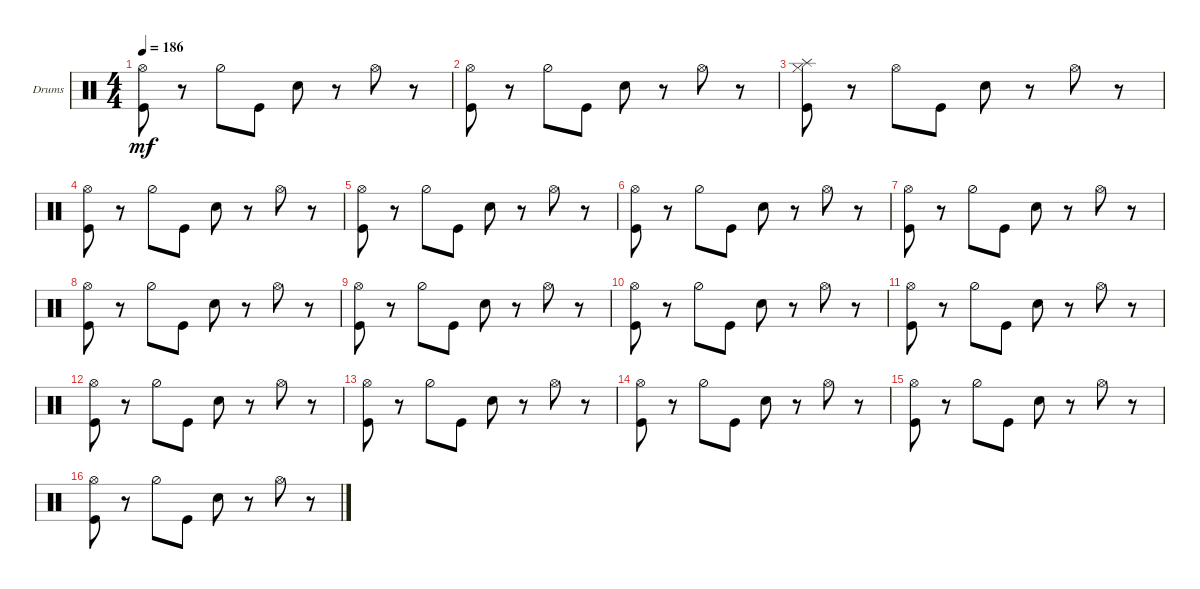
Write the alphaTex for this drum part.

\defaultSystemsLayout 4
\bracketExtendMode groupsimilarinstruments
\firstSystemTrackNameOrientation horizontal
\otherSystemsTrackNameOrientation horizontal
\track ("Drumkit" "Drums") {instrument percussion}
\staff {score}
\articulation defaults
\ts (4 4)
\tempo 186
\clef neutral
\scale
0.333333
\ks c
("Hi-Hat (open)" "Kick (hit)").8{dy mf} r.8 "Hi-Hat (half)".8 "Kick (hit)".8 "Snare (hit) 2".8 r.8 "Hi-Hat (open)".8 r.8 |
\scale
0.333333 ("Hi-Hat (open)" "Kick (hit)").8 r.8 "Hi-Hat (half)".8 "Kick (hit)".8 "Snare (hit) 2".8 r.8 "Hi-Hat (open)".8 r.8 |
\scale
0.333333 ("Hi-Hat (closed)" "Kick (hit)" "Splash (hit)").8 r.8 "Hi-Hat (open)".8 "Kick (hit)".8 "Snare (hit) 2".8 r.8 "Hi-Hat (open)".8 r.8 |
\scale
0.333333 ("Hi-Hat (open)" "Kick (hit)").8 r.8 "Hi-Hat (half)".8 "Kick (hit)".8 "Snare (hit) 2".8 r.8 "Hi-Hat (open)".8 r.8 |
\scale
0.333333 ("Hi-Hat (open)" "Kick (hit)").8 r.8 "Hi-Hat (half)".8 "Kick (hit)".8 "Snare (hit) 2".8 r.8 "Hi-Hat (open)".8 r.8 |
\scale
0.333333 ("Hi-Hat (open)" "Kick (hit)").8 r.8 "Hi-Hat (half)".8 "Kick (hit)".8 "Snare (hit) 2".8 r.8 "Hi-Hat (open)".8 r.8 |
\scale
0.333333 ("Hi-Hat (open)" "Kick (hit)").8 r.8 "Hi-Hat (half)".8 "Kick (hit)".8 "Snare (hit) 2".8 r.8 "Hi-Hat (open)".8 r.8 |
\scale
0.333333 ("Hi-Hat (open)" "Kick (hit)").8 r.8 "Hi-Hat (half)".8 "Kick (hit)".8 "Snare (hit) 2".8 r.8 "Hi-Hat (open)".8 r.8 |
\scale
0.333333 ("Hi-Hat (open)" "Kick (hit)").8 r.8 "Hi-Hat (half)".8 "Kick (hit)".8 "Snare (hit) 2".8 r.8 "Hi-Hat (open)".8 r.8 |
\scale
0.333333 ("Hi-Hat (open)" "Kick (hit)").8 r.8 "Hi-Hat (half)".8 "Kick (hit)".8 "Snare (hit) 2".8 r.8 "Hi-Hat (open)".8 r.8 |
\scale
0.333333 ("Hi-Hat (open)" "Kick (hit)").8 r.8 "Hi-Hat (half)".8 "Kick (hit)".8 "Snare (hit) 2".8 r.8 "Hi-Hat (open)".8 r.8 |
\scale
0.333333 ("Hi-Hat (open)" "Kick (hit)").8 r.8 "Hi-Hat (half)".8 "Kick (hit)".8 "Snare (hit) 2".8 r.8 "Hi-Hat (open)".8 r.8 |
\scale
0.333333 ("Hi-Hat (open)" "Kick (hit)").8 r.8 "Hi-Hat (half)".8 "Kick (hit)".8 "Snare (hit) 2".8 r.8 "Hi-Hat (open)".8 r.8 |
\scale
0.333333 ("Hi-Hat (open)" "Kick (hit)").8 r.8 "Hi-Hat (half)".8 "Kick (hit)".8 "Snare (hit) 2".8 r.8 "Hi-Hat (open)".8 r.8 |
\scale
0.333333 ("Hi-Hat (open)" "Kick (hit)").8 r.8 "Hi-Hat (half)".8 "Kick (hit)".8 "Snare (hit) 2".8 r.8 "Hi-Hat (open)".8 r.8 |
\scale
0.333333 ("Hi-Hat (open)" "Kick (hit)").8 r.8 "Hi-Hat (half)".8 "Kick (hit)".8 "Snare (hit) 2".8 r.8 "Hi-Hat (open)".8 r.8
